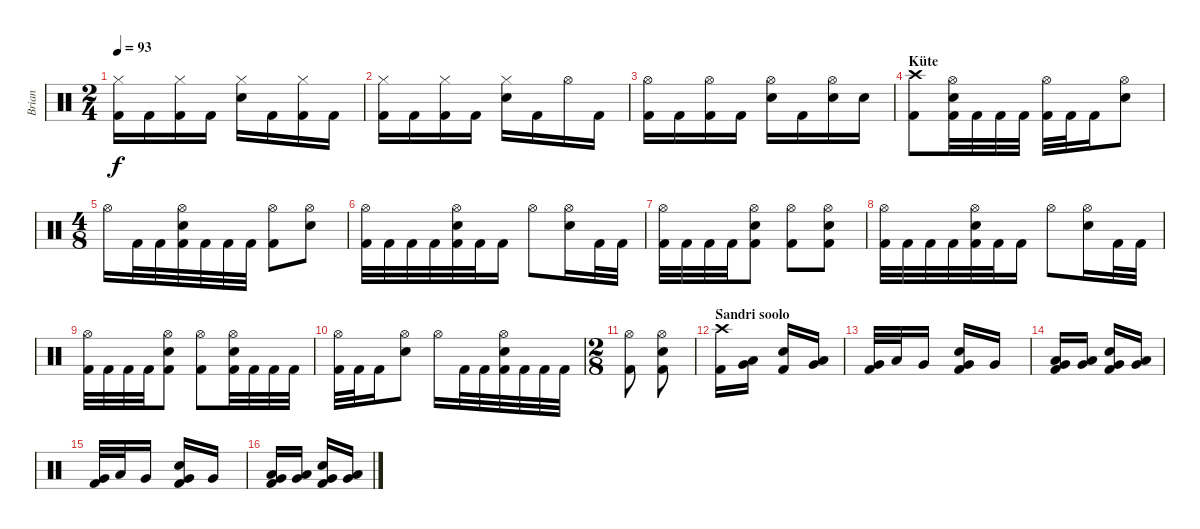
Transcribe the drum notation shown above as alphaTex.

\track ("Brian" "Brian") {instrument percussion}
\staff {score}
\articulation defaults
\ts (2 4)
\tempo 93
\clef neutral
\ks c
("Hi-Hat (closed)" "Kick (hit) 2").16{dy f} "Kick (hit) 2".16 ("Hi-Hat (closed)" "Kick (hit) 2").16 "Kick (hit) 2".16 ("Hi-Hat (closed)" "Electric Snare (hit)").16 "Kick (hit) 2".16 ("Hi-Hat (closed)" "Kick (hit) 2").16 "Kick (hit) 2".16 |
("Hi-Hat (closed)" "Kick (hit) 2").16 "Kick (hit) 2".16 ("Hi-Hat (closed)" "Kick (hit) 2").16 "Kick (hit) 2".16 ("Hi-Hat (closed)" "Electric Snare (hit)").16 "Kick (hit) 2".16 "Hi-Hat (open)".16 "Kick (hit) 2".16 |
("Hi-Hat (open)" "Kick (hit) 2").16 "Kick (hit) 2".16 ("Hi-Hat (open)" "Kick (hit) 2").16 "Kick (hit) 2".16 ("Hi-Hat (open)" "Electric Snare (hit)").16 "Kick (hit) 2".16 ("Hi-Hat (open)" "Electric Snare (hit)").16 "Electric Snare (hit)".16 |
\section ("" "Küte")
("Crash high (hit)" "Kick (hit) 2").8 ("Hi-Hat (open)" "Electric Snare (hit)" "Kick (hit) 2").32 "Kick (hit) 2".32 "Kick (hit) 2".32 "Kick (hit) 2".32 ("Hi-Hat (open)" "Kick (hit) 2").32 "Kick (hit) 2".32 "Kick (hit) 2".16 ("Hi-Hat (open)" "Electric Snare (hit)").8 |
\ts (4 8)
"Hi-Hat (open)".16 "Kick (hit) 2".32 "Kick (hit) 2".32 ("Hi-Hat (open)" "Electric Snare (hit)" "Kick (hit) 2").32 "Kick (hit) 2".32 "Kick (hit) 2".32 "Kick (hit) 2".32 ("Hi-Hat (open)" "Kick (hit) 2").8 ("Hi-Hat (open)" "Electric Snare (hit)").8 |
("Hi-Hat (open)" "Kick (hit) 2").32 "Kick (hit) 2".32 "Kick (hit) 2".32 "Kick (hit) 2".32 ("Hi-Hat (open)" "Electric Snare (hit)" "Kick (hit) 2").32 "Kick (hit) 2".32 "Kick (hit) 2".16 "Hi-Hat (open)".8 ("Hi-Hat (open)" "Electric Snare (hit)").16 "Kick (hit) 2".32 "Kick (hit) 2".32 |
("Hi-Hat (open)" "Kick (hit) 2").32 "Kick (hit) 2".32 "Kick (hit) 2".32 "Kick (hit) 2".32 ("Hi-Hat (open)" "Electric Snare (hit)" "Kick (hit) 2").8 ("Hi-Hat (open)" "Kick (hit) 2").8 ("Hi-Hat (open)" "Electric Snare (hit)" "Kick (hit) 2").8 |
("Hi-Hat (open)" "Kick (hit) 2").32 "Kick (hit) 2".32 "Kick (hit) 2".32 "Kick (hit) 2".32 ("Hi-Hat (open)" "Electric Snare (hit)" "Kick (hit) 2").32 "Kick (hit) 2".32 "Kick (hit) 2".16 "Hi-Hat (open)".8 ("Hi-Hat (open)" "Electric Snare (hit)").16 "Kick (hit) 2".32 "Kick (hit) 2".32 |
("Hi-Hat (open)" "Kick (hit) 2").32 "Kick (hit) 2".32 "Kick (hit) 2".32 "Kick (hit) 2".32 ("Hi-Hat (open)" "Electric Snare (hit)" "Kick (hit) 2").8 ("Hi-Hat (open)" "Kick (hit) 2").8 ("Hi-Hat (open)" "Electric Snare (hit)" "Kick (hit) 2").32 "Kick (hit) 2".32 "Kick (hit) 2".32 "Kick (hit) 2".32 |
("Hi-Hat (open)" "Kick (hit) 2").32 "Kick (hit) 2".32 "Kick (hit) 2".16 ("Hi-Hat (open)" "Electric Snare (hit)").8 "Hi-Hat (open)".16 "Kick (hit) 2".32 "Kick (hit) 2".32 ("Hi-Hat (open)" "Electric Snare (hit)" "Kick (hit) 2").32 "Kick (hit) 2".32 "Kick (hit) 2".32 "Kick (hit) 2".32 |
\ts (2 8)
("Hi-Hat (open)" "Kick (hit) 2").8 ("Hi-Hat (open)" "Electric Snare (hit)" "Kick (hit) 2").8 |
\section ("" "Sandri soolo")
("Crash high (hit)" "Kick (hit) 2").16 ("Low Tom (hit)" "Very Low Tom (hit)").16 ("Electric Snare (hit)" "Kick (hit) 2").16 ("Low Tom (hit)" "Very Low Tom (hit)").16 |
("Very Low Tom (hit)" "Kick (hit) 2").32 "Low Tom (hit)".32 "Very Low Tom (hit)".16 ("Electric Snare (hit)" "Very Low Tom (hit)" "Kick (hit) 2").16 "Very Low Tom (hit)".16 |
("Low Tom (hit)" "Very Low Tom (hit)" "Kick (hit) 2").16 ("Low Tom (hit)" "Very Low Tom (hit)").16 ("Electric Snare (hit)" "Very Low Tom (hit)" "Kick (hit) 2").16 ("Low Tom (hit)" "Very Low Tom (hit)").16 |
("Very Low Tom (hit)" "Kick (hit) 2").32 "Low Tom (hit)".32 "Very Low Tom (hit)".16 ("Electric Snare (hit)" "Very Low Tom (hit)" "Kick (hit) 2").16 "Very Low Tom (hit)".16 |
("Low Tom (hit)" "Very Low Tom (hit)" "Kick (hit) 2").16 ("Low Tom (hit)" "Very Low Tom (hit)").16 ("Electric Snare (hit)" "Very Low Tom (hit)" "Kick (hit) 2").16 ("Low Tom (hit)" "Very Low Tom (hit)").16
